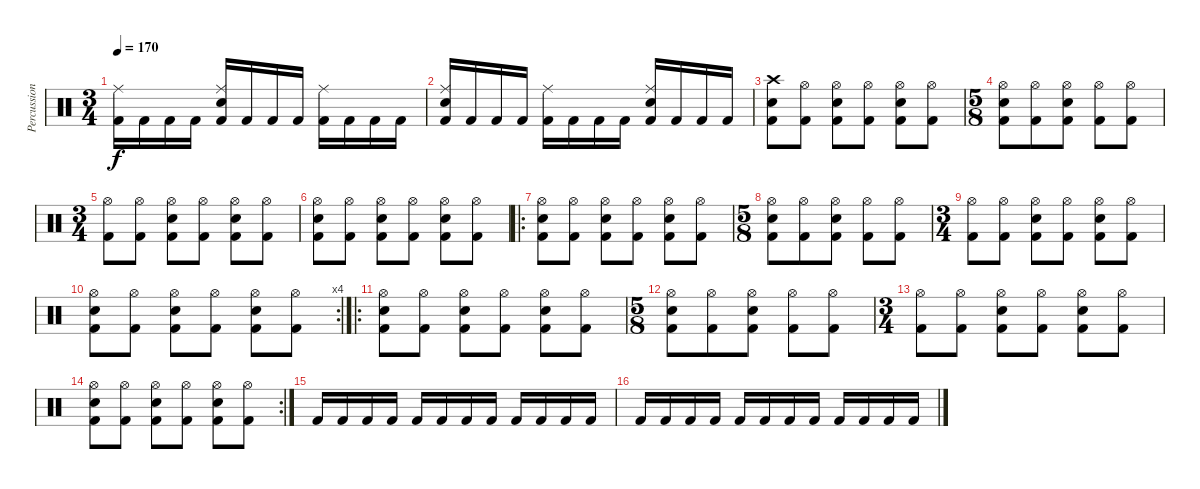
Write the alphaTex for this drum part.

\track ("Percussion" "Percussion") {instrument percussion}
\staff {score}
\articulation defaults
\ts (3 4)
\tempo 170
\clef neutral
\ks c
("Kick (hit) 2" "Ride (middle)").16{dy f} "Kick (hit) 2".16 "Kick (hit) 2".16 "Kick (hit) 2".16 ("Kick (hit) 2" "Snare (hit) 2" "Ride (middle)").16 "Kick (hit) 2".16 "Kick (hit) 2".16 "Kick (hit) 2".16 ("Kick (hit) 2" "Ride (middle)").16 "Kick (hit) 2".16 "Kick (hit) 2".16 "Kick (hit) 2".16 |
("Kick (hit) 2" "Snare (hit) 2" "Ride (middle)").16 "Kick (hit) 2".16 "Kick (hit) 2".16 "Kick (hit) 2".16 ("Kick (hit) 2" "Ride (middle)").16 "Kick (hit) 2".16 "Kick (hit) 2".16 "Kick (hit) 2".16 ("Kick (hit) 2" "Snare (hit) 2" "Ride (middle)").16 "Kick (hit) 2".16 "Kick (hit) 2".16 "Kick (hit) 2".16 |
("Kick (hit) 2" "Snare (hit) 2" "Crash high (hit)").8 ("Kick (hit) 2" "Hi-Hat (open)").8 ("Kick (hit) 2" "Snare (hit) 2" "Hi-Hat (open)").8 ("Kick (hit) 2" "Hi-Hat (open)").8 ("Kick (hit) 2" "Snare (hit) 2" "Hi-Hat (open)").8 ("Kick (hit) 2" "Hi-Hat (open)").8 |
\ts (5 8)
("Kick (hit) 2" "Snare (hit) 2" "Hi-Hat (open)").8 ("Kick (hit) 2" "Hi-Hat (open)").8 ("Kick (hit) 2" "Snare (hit) 2" "Hi-Hat (open)").8 ("Kick (hit) 2" "Hi-Hat (open)").8 ("Kick (hit) 2" "Hi-Hat (open)").8 |
\ts (3 4)
("Kick (hit) 2" "Hi-Hat (open)").8 ("Kick (hit) 2" "Hi-Hat (open)").8 ("Kick (hit) 2" "Snare (hit) 2" "Hi-Hat (open)").8 ("Kick (hit) 2" "Hi-Hat (open)").8 ("Kick (hit) 2" "Snare (hit) 2" "Hi-Hat (open)").8 ("Kick (hit) 2" "Hi-Hat (open)").8 |
("Kick (hit) 2" "Snare (hit) 2" "Hi-Hat (open)").8 ("Kick (hit) 2" "Hi-Hat (open)").8 ("Kick (hit) 2" "Snare (hit) 2" "Hi-Hat (open)").8 ("Kick (hit) 2" "Hi-Hat (open)").8 ("Kick (hit) 2" "Snare (hit) 2" "Hi-Hat (open)").8 ("Kick (hit) 2" "Hi-Hat (open)").8 |
\ro
("Kick (hit) 2" "Snare (hit) 2" "Hi-Hat (open)").8 ("Kick (hit) 2" "Hi-Hat (open)").8 ("Kick (hit) 2" "Snare (hit) 2" "Hi-Hat (open)").8 ("Kick (hit) 2" "Hi-Hat (open)").8 ("Kick (hit) 2" "Snare (hit) 2" "Hi-Hat (open)").8 ("Kick (hit) 2" "Hi-Hat (open)").8 |
\ts (5 8)
("Kick (hit) 2" "Snare (hit) 2" "Hi-Hat (open)").8 ("Kick (hit) 2" "Hi-Hat (open)").8 ("Kick (hit) 2" "Snare (hit) 2" "Hi-Hat (open)").8 ("Kick (hit) 2" "Hi-Hat (open)").8 ("Kick (hit) 2" "Hi-Hat (open)").8 |
\ts (3 4)
("Kick (hit) 2" "Hi-Hat (open)").8 ("Kick (hit) 2" "Hi-Hat (open)").8 ("Kick (hit) 2" "Snare (hit) 2" "Hi-Hat (open)").8 ("Kick (hit) 2" "Hi-Hat (open)").8 ("Kick (hit) 2" "Snare (hit) 2" "Hi-Hat (open)").8 ("Kick (hit) 2" "Hi-Hat (open)").8 |
\rc 4
("Kick (hit) 2" "Snare (hit) 2" "Hi-Hat (open)").8 ("Kick (hit) 2" "Hi-Hat (open)").8 ("Kick (hit) 2" "Snare (hit) 2" "Hi-Hat (open)").8 ("Kick (hit) 2" "Hi-Hat (open)").8 ("Kick (hit) 2" "Snare (hit) 2" "Hi-Hat (open)").8 ("Kick (hit) 2" "Hi-Hat (open)").8 |
\ro
("Kick (hit) 2" "Snare (hit) 2" "Hi-Hat (open)").8 ("Kick (hit) 2" "Hi-Hat (open)").8 ("Kick (hit) 2" "Snare (hit) 2" "Hi-Hat (open)").8 ("Kick (hit) 2" "Hi-Hat (open)").8 ("Kick (hit) 2" "Snare (hit) 2" "Hi-Hat (open)").8 ("Kick (hit) 2" "Hi-Hat (open)").8 |
\ts (5 8)
("Kick (hit) 2" "Snare (hit) 2" "Hi-Hat (open)").8 ("Kick (hit) 2" "Hi-Hat (open)").8 ("Kick (hit) 2" "Snare (hit) 2" "Hi-Hat (open)").8 ("Kick (hit) 2" "Hi-Hat (open)").8 ("Kick (hit) 2" "Hi-Hat (open)").8 |
\ts (3 4)
("Kick (hit) 2" "Hi-Hat (open)").8 ("Kick (hit) 2" "Hi-Hat (open)").8 ("Kick (hit) 2" "Snare (hit) 2" "Hi-Hat (open)").8 ("Kick (hit) 2" "Hi-Hat (open)").8 ("Kick (hit) 2" "Snare (hit) 2" "Hi-Hat (open)").8 ("Kick (hit) 2" "Hi-Hat (open)").8 |
\rc 2
("Kick (hit) 2" "Snare (hit) 2" "Hi-Hat (open)").8 ("Kick (hit) 2" "Hi-Hat (open)").8 ("Kick (hit) 2" "Snare (hit) 2" "Hi-Hat (open)").8 ("Kick (hit) 2" "Hi-Hat (open)").8 ("Kick (hit) 2" "Snare (hit) 2" "Hi-Hat (open)").8 ("Kick (hit) 2" "Hi-Hat (open)").8 |
"Kick (hit) 2".16 "Kick (hit) 2".16 "Kick (hit) 2".16 "Kick (hit) 2".16 "Kick (hit) 2".16 "Kick (hit) 2".16 "Kick (hit) 2".16 "Kick (hit) 2".16 "Kick (hit) 2".16 "Kick (hit) 2".16 "Kick (hit) 2".16 "Kick (hit) 2".16 |
"Kick (hit) 2".16 "Kick (hit) 2".16 "Kick (hit) 2".16 "Kick (hit) 2".16 "Kick (hit) 2".16 "Kick (hit) 2".16 "Kick (hit) 2".16 "Kick (hit) 2".16 "Kick (hit) 2".16 "Kick (hit) 2".16 "Kick (hit) 2".16 "Kick (hit) 2".16
